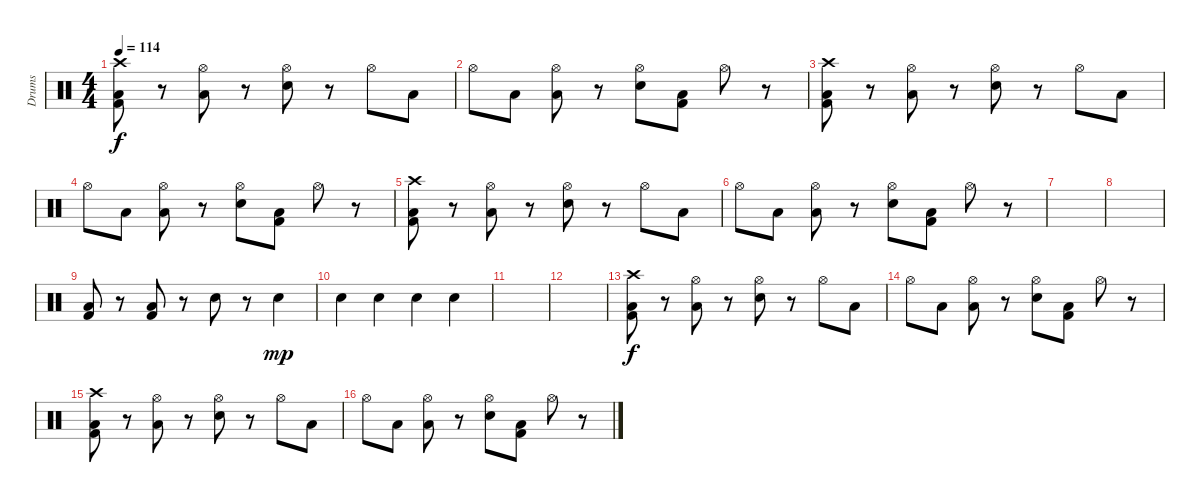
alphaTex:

\track ("Drums" "Drums") {instrument percussion}
\staff {score}
\articulation defaults
\ts (4 4)
\tempo 114
\clef neutral
\ks c
("Crash high (hit)" "Kick (hit) 2" "Low Floor Tom (hit)").8{dy f} r.8 ("Hi-Hat (open)" "Low Floor Tom (hit)").8 r.8 ("Hi-Hat (open)" "Snare (hit) 2").8 r.8 "Hi-Hat (open)".8 "Low Floor Tom (hit)".8 |
"Hi-Hat (open)".8 "Low Floor Tom (hit)".8 ("Hi-Hat (open)" "Low Floor Tom (hit)").8 r.8 ("Hi-Hat (open)" "Snare (hit) 2").8 ("Kick (hit) 2" "Low Floor Tom (hit)").8 "Hi-Hat (open)".8 r.8 |
("Crash high (hit)" "Kick (hit) 2" "Low Floor Tom (hit)").8 r.8 ("Hi-Hat (open)" "Low Floor Tom (hit)").8 r.8 ("Hi-Hat (open)" "Snare (hit) 2").8 r.8 "Hi-Hat (open)".8 "Low Floor Tom (hit)".8 |
"Hi-Hat (open)".8 "Low Floor Tom (hit)".8 ("Hi-Hat (open)" "Low Floor Tom (hit)").8 r.8 ("Hi-Hat (open)" "Snare (hit) 2").8 ("Kick (hit) 2" "Low Floor Tom (hit)").8 "Hi-Hat (open)".8 r.8 |
("Crash high (hit)" "Kick (hit) 2" "Low Floor Tom (hit)").8 r.8 ("Hi-Hat (open)" "Low Floor Tom (hit)").8 r.8 ("Hi-Hat (open)" "Snare (hit) 2").8 r.8 "Hi-Hat (open)".8 "Low Floor Tom (hit)".8 |
"Hi-Hat (open)".8 "Low Floor Tom (hit)".8 ("Hi-Hat (open)" "Low Floor Tom (hit)").8 r.8 ("Hi-Hat (open)" "Snare (hit) 2").8 ("Kick (hit) 2" "Low Floor Tom (hit)").8 "Hi-Hat (open)".8 r.8 |
|
|
("Kick (hit) 2" "Low Floor Tom (hit)").8{volume 16} r.8 ("Kick (hit) 2" "Low Floor Tom (hit)").8 r.8 "Snare (hit) 2".8{volume 1} r.8 "Snare (hit) 2".4{dy mp} |
"Snare (hit) 2".4 "Snare (hit) 2".4 "Snare (hit) 2".4 "Snare (hit) 2".4 |
|
|
("Crash high (hit)" "Kick (hit) 2" "Low Floor Tom (hit)").8{dy f volume 16} r.8 ("Hi-Hat (open)" "Low Floor Tom (hit)").8 r.8 ("Hi-Hat (open)" "Snare (hit) 2").8 r.8 "Hi-Hat (open)".8 "Low Floor Tom (hit)".8 |
"Hi-Hat (open)".8 "Low Floor Tom (hit)".8 ("Hi-Hat (open)" "Low Floor Tom (hit)").8 r.8 ("Hi-Hat (open)" "Snare (hit) 2").8 ("Kick (hit) 2" "Low Floor Tom (hit)").8 "Hi-Hat (open)".8 r.8 |
("Crash high (hit)" "Kick (hit) 2" "Low Floor Tom (hit)").8 r.8 ("Hi-Hat (open)" "Low Floor Tom (hit)").8 r.8 ("Hi-Hat (open)" "Snare (hit) 2").8 r.8 "Hi-Hat (open)".8 "Low Floor Tom (hit)".8 |
"Hi-Hat (open)".8 "Low Floor Tom (hit)".8 ("Hi-Hat (open)" "Low Floor Tom (hit)").8 r.8 ("Hi-Hat (open)" "Snare (hit) 2").8 ("Kick (hit) 2" "Low Floor Tom (hit)").8 "Hi-Hat (open)".8 r.8
